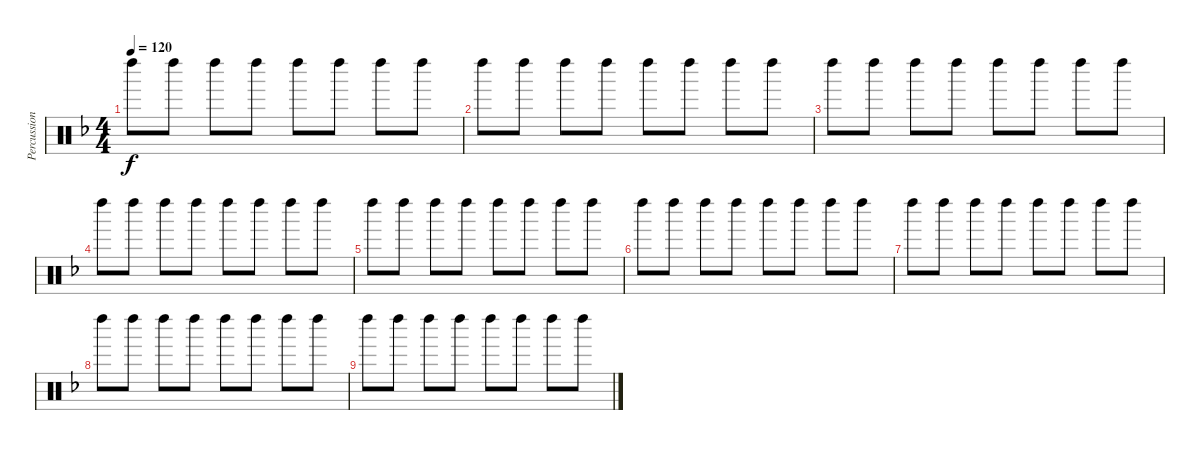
\track ("Percussion" "Percussion") {instrument percussion}
\staff {score}
\articulation defaults
\ts (4 4)
\tempo 120
\clef neutral
\ks f "Left Maraca (hit)".8{dy f} "Left Maraca (hit)".8 "Left Maraca (hit)".8 "Left Maraca (hit)".8 "Left Maraca (hit)".8 "Left Maraca (hit)".8 "Left Maraca (hit)".8 "Left Maraca (hit)".8
|
"Left Maraca (hit)".8 "Left Maraca (hit)".8 "Left Maraca (hit)".8 "Left Maraca (hit)".8 "Left Maraca (hit)".8 "Left Maraca (hit)".8 "Left Maraca (hit)".8 "Left Maraca (hit)".8 |
"Left Maraca (hit)".8 "Left Maraca (hit)".8 "Left Maraca (hit)".8 "Left Maraca (hit)".8 "Left Maraca (hit)".8 "Left Maraca (hit)".8 "Left Maraca (hit)".8 "Left Maraca (hit)".8 |
"Left Maraca (hit)".8 "Left Maraca (hit)".8 "Left Maraca (hit)".8 "Left Maraca (hit)".8 "Left Maraca (hit)".8 "Left Maraca (hit)".8 "Left Maraca (hit)".8 "Left Maraca (hit)".8 |
"Left Maraca (hit)".8 "Left Maraca (hit)".8 "Left Maraca (hit)".8 "Left Maraca (hit)".8 "Left Maraca (hit)".8 "Left Maraca (hit)".8 "Left Maraca (hit)".8 "Left Maraca (hit)".8 |
"Left Maraca (hit)".8 "Left Maraca (hit)".8 "Left Maraca (hit)".8 "Left Maraca (hit)".8 "Left Maraca (hit)".8 "Left Maraca (hit)".8 "Left Maraca (hit)".8 "Left Maraca (hit)".8 |
"Left Maraca (hit)".8 "Left Maraca (hit)".8 "Left Maraca (hit)".8 "Left Maraca (hit)".8 "Left Maraca (hit)".8 "Left Maraca (hit)".8 "Left Maraca (hit)".8 "Left Maraca (hit)".8 |
"Left Maraca (hit)".8 "Left Maraca (hit)".8 "Left Maraca (hit)".8 "Left Maraca (hit)".8 "Left Maraca (hit)".8 "Left Maraca (hit)".8 "Left Maraca (hit)".8 "Left Maraca (hit)".8 |
"Left Maraca (hit)".8 "Left Maraca (hit)".8 "Left Maraca (hit)".8 "Left Maraca (hit)".8 "Left Maraca (hit)".8 "Left Maraca (hit)".8 "Left Maraca (hit)".8 "Left Maraca (hit)".8
